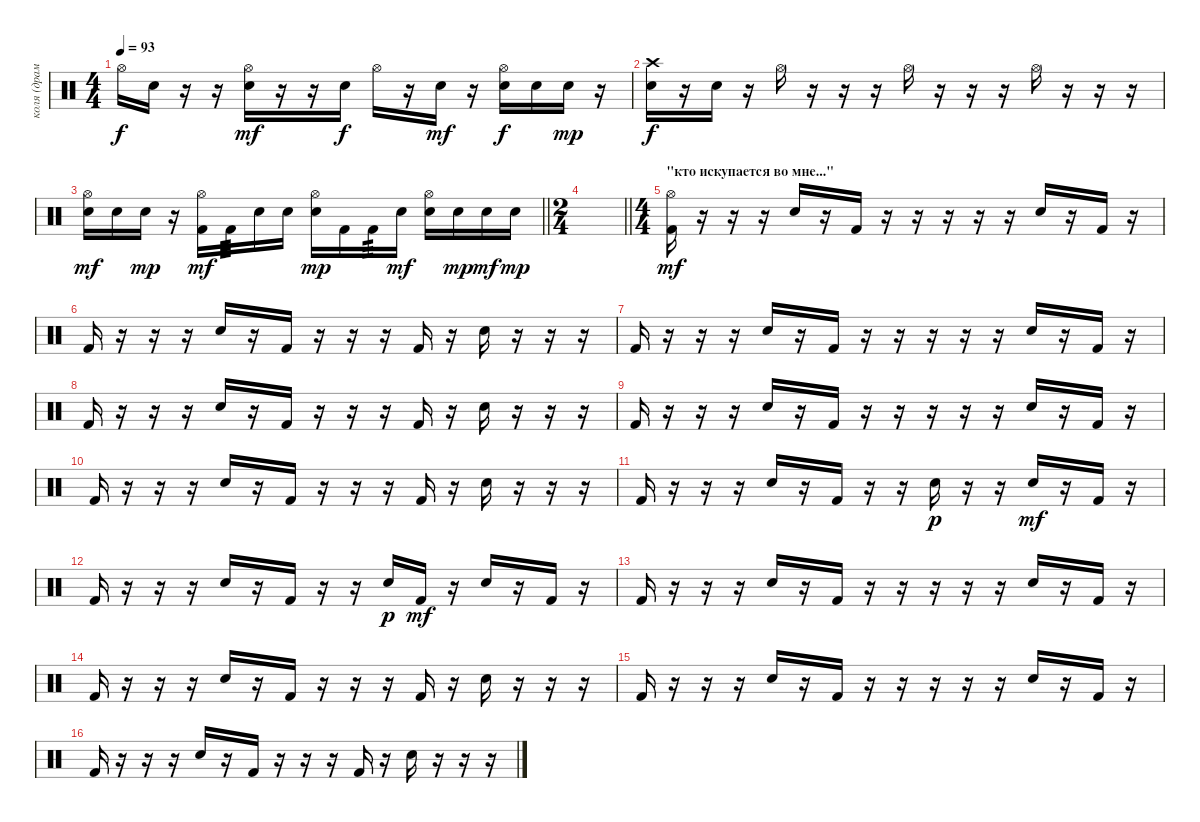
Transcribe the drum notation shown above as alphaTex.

\track ("коля (драммы)" "коля (драм") {instrument percussion}
\staff {score}
\articulation defaults
\ts (4 4)
\tempo 93
\clef neutral
\ks c "Hi-Hat (open)".16{dy f} "Snare (hit) 2".16
r.16 r.16 ("Hi-Hat (open)" "Snare (hit) 2").16{dy mf} r.16 r.16 "Snare (hit) 2".16{dy f} "Hi-Hat (open)".16 r.16 "Snare (hit) 2".16{dy mf} r.16 ("Hi-Hat (open)" "Snare (hit) 2").16{dy f} "Snare (hit) 2".16 "Snare (hit) 2".16{dy mp} r.16 |
("Snare (hit) 2" "Crash high (hit)").16{dy f} r.16 "Snare (hit) 2".16 r.16 "Hi-Hat (open)".16 r.16 r.16 r.16 "Hi-Hat (open)".16 r.16 r.16 r.16 "Hi-Hat (open)".16 r.16 r.16 r.16 |
\barLineRight lightlight
("Hi-Hat (open)" "Snare (hit) 2").16{dy mf} "Snare (hit) 2".16 "Snare (hit) 2".16{dy mp} r.16 ("Hi-Hat (open)" "Kick (hit) 2").16{dy mf} "Kick (hit) 2".16{tp 3} "Snare (hit) 2".16 "Snare (hit) 2".16 ("Hi-Hat (open)" "Snare (hit) 2").16{dy mp} "Kick (hit) 2".16 "Kick (hit) 2".16{tp 3} "Snare (hit) 2".16{dy mf} ("Hi-Hat (open)" "Snare (hit) 2").16 "Snare (hit) 2".16{dy mp} "Snare (hit) 2".16{dy mf} "Snare (hit) 2".16{dy mp} |
\ts (2 4)
\barLineRight lightlight
|
\ts (4 4)
\section ("" "\"кто искупается во мне...\"")
("Hi-Hat (open)" "Kick (hit) 2").16{dy mf} r.16 r.16 r.16 "Snare (hit) 2".16 r.16 "Kick (hit) 2".16 r.16 r.16 r.16 r.16 r.16 "Snare (hit) 2".16 r.16 "Kick (hit) 2".16 r.16 |
"Kick (hit) 2".16 r.16 r.16 r.16 "Snare (hit) 2".16 r.16 "Kick (hit) 2".16 r.16 r.16 r.16 "Kick (hit) 2".16 r.16 "Snare (hit) 2".16 r.16 r.16 r.16 |
"Kick (hit) 2".16 r.16 r.16 r.16 "Snare (hit) 2".16 r.16 "Kick (hit) 2".16 r.16 r.16 r.16 r.16 r.16 "Snare (hit) 2".16 r.16 "Kick (hit) 2".16 r.16 |
"Kick (hit) 2".16 r.16 r.16 r.16 "Snare (hit) 2".16 r.16 "Kick (hit) 2".16 r.16 r.16 r.16 "Kick (hit) 2".16 r.16 "Snare (hit) 2".16 r.16 r.16 r.16 |
"Kick (hit) 2".16 r.16 r.16 r.16 "Snare (hit) 2".16 r.16 "Kick (hit) 2".16 r.16 r.16 r.16 r.16 r.16 "Snare (hit) 2".16 r.16 "Kick (hit) 2".16 r.16 |
"Kick (hit) 2".16 r.16 r.16 r.16 "Snare (hit) 2".16 r.16 "Kick (hit) 2".16 r.16 r.16 r.16 "Kick (hit) 2".16 r.16 "Snare (hit) 2".16 r.16 r.16 r.16 |
"Kick (hit) 2".16 r.16 r.16 r.16 "Snare (hit) 2".16 r.16 "Kick (hit) 2".16 r.16 r.16 "Snare (hit) 2".16{dy p} r.16 r.16 "Snare (hit) 2".16{dy mf} r.16 "Kick (hit) 2".16 r.16 |
"Kick (hit) 2".16 r.16 r.16 r.16 "Snare (hit) 2".16 r.16 "Kick (hit) 2".16 r.16 r.16 "Snare (hit) 2".16{dy p} "Kick (hit) 2".16{dy mf} r.16 "Snare (hit) 2".16 r.16 "Kick (hit) 2".16 r.16 |
"Kick (hit) 2".16 r.16 r.16 r.16 "Snare (hit) 2".16 r.16 "Kick (hit) 2".16 r.16 r.16 r.16 r.16 r.16 "Snare (hit) 2".16 r.16 "Kick (hit) 2".16 r.16 |
"Kick (hit) 2".16 r.16 r.16 r.16 "Snare (hit) 2".16 r.16 "Kick (hit) 2".16 r.16 r.16 r.16 "Kick (hit) 2".16 r.16 "Snare (hit) 2".16 r.16 r.16 r.16 |
"Kick (hit) 2".16 r.16 r.16 r.16 "Snare (hit) 2".16 r.16 "Kick (hit) 2".16 r.16 r.16 r.16 r.16 r.16 "Snare (hit) 2".16 r.16 "Kick (hit) 2".16 r.16 |
"Kick (hit) 2".16 r.16 r.16 r.16 "Snare (hit) 2".16 r.16 "Kick (hit) 2".16 r.16 r.16 r.16 "Kick (hit) 2".16 r.16 "Snare (hit) 2".16 r.16 r.16 r.16
